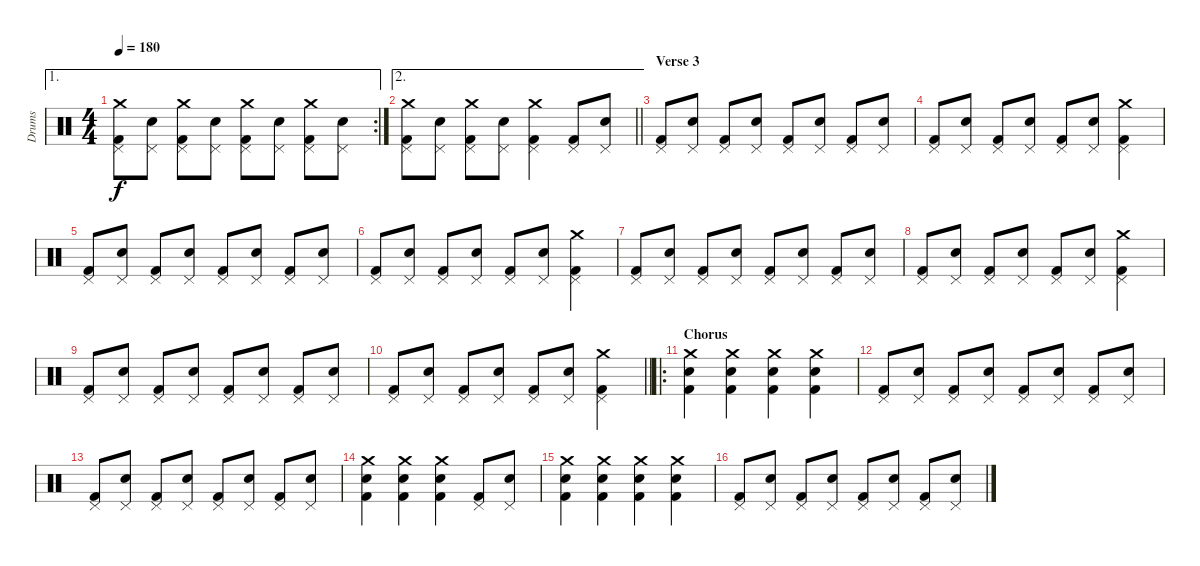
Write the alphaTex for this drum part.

\track ("Drums" "Drums") {instrument percussion}
\staff {score}
\articulation defaults
\ae 1
\rc 2
\ts (4 4)
\tempo 180
\clef neutral
\ks c
("Crash medium (hit)" "Pedal Hi-Hat (hit)" "Kick (hit) 2").8{dy f} ("Snare (hit) 2" "Pedal Hi-Hat (hit)").8 ("Crash medium (hit)" "Pedal Hi-Hat (hit)" "Kick (hit) 2").8 ("Snare (hit) 2" "Pedal Hi-Hat (hit)").8 ("Crash medium (hit)" "Pedal Hi-Hat (hit)" "Kick (hit) 2").8 ("Snare (hit) 2" "Pedal Hi-Hat (hit)").8 ("Crash medium (hit)" "Pedal Hi-Hat (hit)" "Kick (hit) 2").8 ("Snare (hit) 2" "Pedal Hi-Hat (hit)").8 |
\ae 2
\barLineRight lightlight
("Crash medium (hit)" "Pedal Hi-Hat (hit)" "Kick (hit) 2").8 ("Snare (hit) 2" "Pedal Hi-Hat (hit)").8 ("Crash medium (hit)" "Pedal Hi-Hat (hit)" "Kick (hit) 2").8 ("Snare (hit) 2" "Pedal Hi-Hat (hit)").8 ("Crash medium (hit)" "Pedal Hi-Hat (hit)" "Kick (hit) 2").4 ("Kick (hit) 2" "Pedal Hi-Hat (hit)").8 ("Snare (hit) 2" "Pedal Hi-Hat (hit)").8 |
\section ("" "Verse 3")
("Kick (hit) 2" "Pedal Hi-Hat (hit)").8 ("Snare (hit) 2" "Pedal Hi-Hat (hit)").8 ("Kick (hit) 2" "Pedal Hi-Hat (hit)").8 ("Snare (hit) 2" "Pedal Hi-Hat (hit)").8 ("Kick (hit) 2" "Pedal Hi-Hat (hit)").8 ("Snare (hit) 2" "Pedal Hi-Hat (hit)").8 ("Kick (hit) 2" "Pedal Hi-Hat (hit)").8 ("Snare (hit) 2" "Pedal Hi-Hat (hit)").8 |
("Kick (hit) 2" "Pedal Hi-Hat (hit)").8 ("Snare (hit) 2" "Pedal Hi-Hat (hit)").8 ("Kick (hit) 2" "Pedal Hi-Hat (hit)").8 ("Snare (hit) 2" "Pedal Hi-Hat (hit)").8 ("Kick (hit) 2" "Pedal Hi-Hat (hit)").8 ("Snare (hit) 2" "Pedal Hi-Hat (hit)").8 ("Kick (hit) 2" "Pedal Hi-Hat (hit)" "Crash medium (hit)").4 |
("Kick (hit) 2" "Pedal Hi-Hat (hit)").8 ("Snare (hit) 2" "Pedal Hi-Hat (hit)").8 ("Kick (hit) 2" "Pedal Hi-Hat (hit)").8 ("Snare (hit) 2" "Pedal Hi-Hat (hit)").8 ("Kick (hit) 2" "Pedal Hi-Hat (hit)").8 ("Snare (hit) 2" "Pedal Hi-Hat (hit)").8 ("Kick (hit) 2" "Pedal Hi-Hat (hit)").8 ("Snare (hit) 2" "Pedal Hi-Hat (hit)").8 |
("Kick (hit) 2" "Pedal Hi-Hat (hit)").8 ("Snare (hit) 2" "Pedal Hi-Hat (hit)").8 ("Kick (hit) 2" "Pedal Hi-Hat (hit)").8 ("Snare (hit) 2" "Pedal Hi-Hat (hit)").8 ("Kick (hit) 2" "Pedal Hi-Hat (hit)").8 ("Snare (hit) 2" "Pedal Hi-Hat (hit)").8 ("Kick (hit) 2" "Pedal Hi-Hat (hit)" "Crash medium (hit)").4 |
("Kick (hit) 2" "Pedal Hi-Hat (hit)").8 ("Snare (hit) 2" "Pedal Hi-Hat (hit)").8 ("Kick (hit) 2" "Pedal Hi-Hat (hit)").8 ("Snare (hit) 2" "Pedal Hi-Hat (hit)").8 ("Kick (hit) 2" "Pedal Hi-Hat (hit)").8 ("Snare (hit) 2" "Pedal Hi-Hat (hit)").8 ("Kick (hit) 2" "Pedal Hi-Hat (hit)").8 ("Snare (hit) 2" "Pedal Hi-Hat (hit)").8 |
("Kick (hit) 2" "Pedal Hi-Hat (hit)").8 ("Snare (hit) 2" "Pedal Hi-Hat (hit)").8 ("Kick (hit) 2" "Pedal Hi-Hat (hit)").8 ("Snare (hit) 2" "Pedal Hi-Hat (hit)").8 ("Kick (hit) 2" "Pedal Hi-Hat (hit)").8 ("Snare (hit) 2" "Pedal Hi-Hat (hit)").8 ("Kick (hit) 2" "Pedal Hi-Hat (hit)" "Crash medium (hit)").4 |
("Kick (hit) 2" "Pedal Hi-Hat (hit)").8 ("Snare (hit) 2" "Pedal Hi-Hat (hit)").8 ("Kick (hit) 2" "Pedal Hi-Hat (hit)").8 ("Snare (hit) 2" "Pedal Hi-Hat (hit)").8 ("Kick (hit) 2" "Pedal Hi-Hat (hit)").8 ("Snare (hit) 2" "Pedal Hi-Hat (hit)").8 ("Kick (hit) 2" "Pedal Hi-Hat (hit)").8 ("Snare (hit) 2" "Pedal Hi-Hat (hit)").8 |
\barLineRight lightlight
("Kick (hit) 2" "Pedal Hi-Hat (hit)").8 ("Snare (hit) 2" "Pedal Hi-Hat (hit)").8 ("Kick (hit) 2" "Pedal Hi-Hat (hit)").8 ("Snare (hit) 2" "Pedal Hi-Hat (hit)").8 ("Kick (hit) 2" "Pedal Hi-Hat (hit)").8 ("Snare (hit) 2" "Pedal Hi-Hat (hit)").8 ("Kick (hit) 2" "Pedal Hi-Hat (hit)" "Crash medium (hit)").4 |
\ro
\section ("" "Chorus")
("Crash medium (hit)" "Electric Snare (hit)" "Kick (hit) 2").4 ("Crash medium (hit)" "Electric Snare (hit)" "Kick (hit) 2").4 ("Crash medium (hit)" "Electric Snare (hit)" "Kick (hit) 2").4 ("Crash medium (hit)" "Electric Snare (hit)" "Kick (hit) 2").4 |
("Kick (hit) 2" "Pedal Hi-Hat (hit)").8 ("Snare (hit) 2" "Pedal Hi-Hat (hit)").8 ("Kick (hit) 2" "Pedal Hi-Hat (hit)").8 ("Snare (hit) 2" "Pedal Hi-Hat (hit)").8 ("Kick (hit) 2" "Pedal Hi-Hat (hit)").8 ("Snare (hit) 2" "Pedal Hi-Hat (hit)").8 ("Kick (hit) 2" "Pedal Hi-Hat (hit)").8 ("Snare (hit) 2" "Pedal Hi-Hat (hit)").8 |
("Kick (hit) 2" "Pedal Hi-Hat (hit)").8 ("Snare (hit) 2" "Pedal Hi-Hat (hit)").8 ("Kick (hit) 2" "Pedal Hi-Hat (hit)").8 ("Snare (hit) 2" "Pedal Hi-Hat (hit)").8 ("Kick (hit) 2" "Pedal Hi-Hat (hit)").8 ("Snare (hit) 2" "Pedal Hi-Hat (hit)").8 ("Kick (hit) 2" "Pedal Hi-Hat (hit)").8 ("Snare (hit) 2" "Pedal Hi-Hat (hit)").8 |
("Crash medium (hit)" "Electric Snare (hit)" "Kick (hit) 2").4 ("Crash medium (hit)" "Electric Snare (hit)" "Kick (hit) 2").4 ("Crash medium (hit)" "Electric Snare (hit)" "Kick (hit) 2").4 ("Kick (hit) 2" "Pedal Hi-Hat (hit)").8 ("Snare (hit) 2" "Pedal Hi-Hat (hit)").8 |
("Crash medium (hit)" "Electric Snare (hit)" "Kick (hit) 2").4 ("Crash medium (hit)" "Electric Snare (hit)" "Kick (hit) 2").4 ("Crash medium (hit)" "Electric Snare (hit)" "Kick (hit) 2").4 ("Crash medium (hit)" "Electric Snare (hit)" "Kick (hit) 2").4 |
("Kick (hit) 2" "Pedal Hi-Hat (hit)").8 ("Snare (hit) 2" "Pedal Hi-Hat (hit)").8 ("Kick (hit) 2" "Pedal Hi-Hat (hit)").8 ("Snare (hit) 2" "Pedal Hi-Hat (hit)").8 ("Kick (hit) 2" "Pedal Hi-Hat (hit)").8 ("Snare (hit) 2" "Pedal Hi-Hat (hit)").8 ("Kick (hit) 2" "Pedal Hi-Hat (hit)").8 ("Snare (hit) 2" "Pedal Hi-Hat (hit)").8
